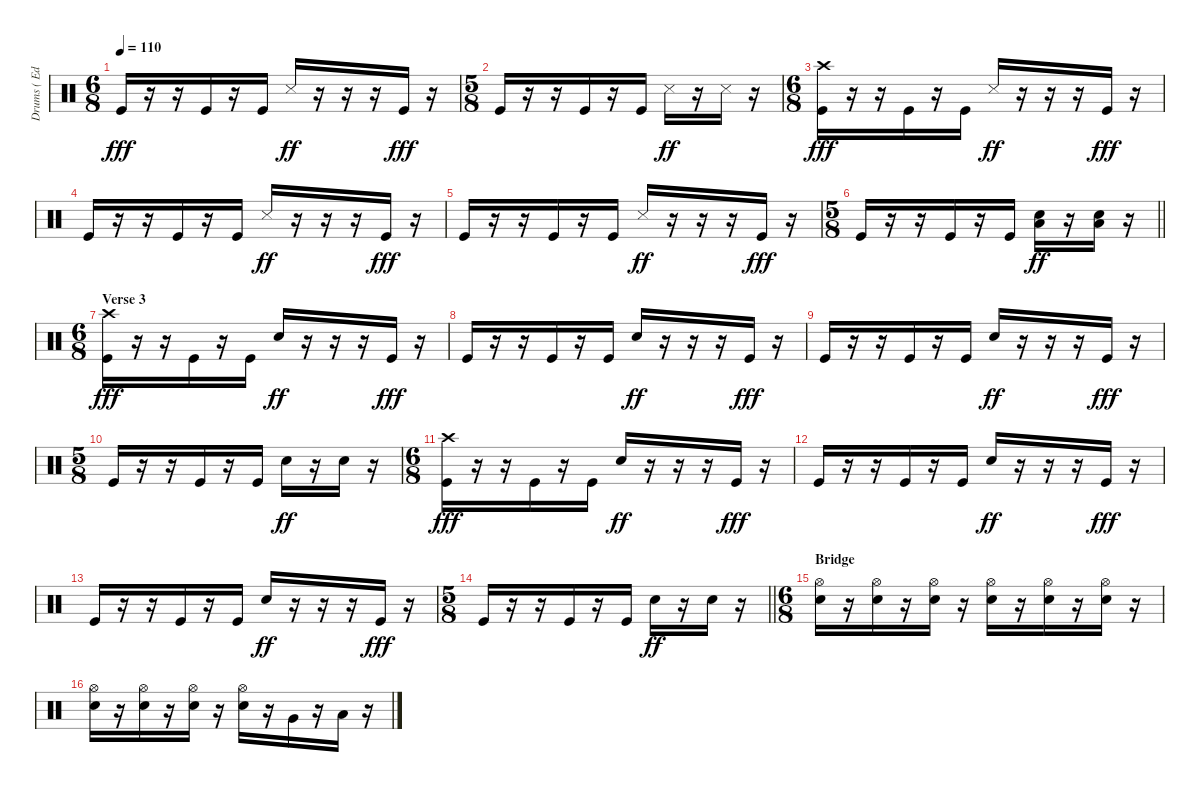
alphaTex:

\track ("Drums ( Edward O'Brien )" "Drums ( Ed") {instrument percussion}
\staff {score}
\articulation defaults
\ts (6 8)
\tempo 110
\clef neutral
\ks c "Kick (hit)".16{dy fff}
r.16 r.16 "Kick (hit)".16 r.16 "Kick (hit)".16 "Snare (side stick) 3".16{dy ff} r.16 r.16 r.16 "Kick (hit)".16{dy fff} r.16 |
\ts (5 8)
"Kick (hit)".16 r.16 r.16 "Kick (hit)".16 r.16 "Kick (hit)".16 "Snare (side stick) 3".16{dy ff} r.16 "Snare (side stick) 3".16 r.16 |
\ts (6 8)
("Crash high (hit)" "Kick (hit)").16{dy fff} r.16 r.16 "Kick (hit)".16 r.16 "Kick (hit)".16 "Snare (side stick) 3".16{dy ff} r.16 r.16 r.16 "Kick (hit)".16{dy fff} r.16 |
"Kick (hit)".16 r.16 r.16 "Kick (hit)".16 r.16 "Kick (hit)".16 "Snare (side stick) 3".16{dy ff} r.16 r.16 r.16 "Kick (hit)".16{dy fff} r.16 |
"Kick (hit)".16 r.16 r.16 "Kick (hit)".16 r.16 "Kick (hit)".16 "Snare (side stick) 3".16{dy ff} r.16 r.16 r.16 "Kick (hit)".16{dy fff} r.16 |
\ts (5 8)
\barLineRight lightlight "Kick (hit)".16
r.16 r.16 "Kick (hit)".16 r.16 "Kick (hit)".16 ("Electric Snare (hit)" "Low Floor Tom (hit)").16{dy ff} r.16 ("Electric Snare (hit)" "Low Floor Tom (hit)").16 r.16 |
\ts (6 8)
\section ("" "Verse 3")
("Crash high (hit)" "Kick (hit)").16{dy fff} r.16 r.16 "Kick (hit)".16 r.16 "Kick (hit)".16 "Electric Snare (hit)".16{dy ff} r.16 r.16 r.16 "Kick (hit)".16{dy fff} r.16 |
"Kick (hit)".16 r.16 r.16 "Kick (hit)".16 r.16 "Kick (hit)".16 "Electric Snare (hit)".16{dy ff} r.16 r.16 r.16 "Kick (hit)".16{dy fff} r.16 |
"Kick (hit)".16 r.16 r.16 "Kick (hit)".16 r.16 "Kick (hit)".16 "Electric Snare (hit)".16{dy ff} r.16 r.16 r.16 "Kick (hit)".16{dy fff} r.16 |
\ts (5 8)
"Kick (hit)".16 r.16 r.16 "Kick (hit)".16 r.16 "Kick (hit)".16 "Electric Snare (hit)".16{dy ff} r.16 "Electric Snare (hit)".16 r.16 |
\ts (6 8)
("Crash high (hit)" "Kick (hit)").16{dy fff} r.16 r.16 "Kick (hit)".16 r.16 "Kick (hit)".16 "Electric Snare (hit)".16{dy ff} r.16 r.16 r.16 "Kick (hit)".16{dy fff} r.16 |
"Kick (hit)".16 r.16 r.16 "Kick (hit)".16 r.16 "Kick (hit)".16 "Electric Snare (hit)".16{dy ff} r.16 r.16 r.16 "Kick (hit)".16{dy fff} r.16 |
"Kick (hit)".16 r.16 r.16 "Kick (hit)".16 r.16 "Kick (hit)".16 "Electric Snare (hit)".16{dy ff} r.16 r.16 r.16 "Kick (hit)".16{dy fff} r.16 |
\ts (5 8)
\barLineRight lightlight "Kick (hit)".16
r.16 r.16 "Kick (hit)".16 r.16 "Kick (hit)".16 "Electric Snare (hit)".16{dy ff} r.16 "Electric Snare (hit)".16 r.16 |
\ts (6 8)
\section ("" "Bridge")
("Hi-Hat (open)" "Electric Snare (hit)").16 r.16 ("Hi-Hat (open)" "Electric Snare (hit)").16 r.16 ("Hi-Hat (open)" "Electric Snare (hit)").16 r.16 ("Hi-Hat (open)" "Electric Snare (hit)").16 r.16 ("Hi-Hat (open)" "Electric Snare (hit)").16 r.16 ("Hi-Hat (open)" "Electric Snare (hit)").16 r.16 |
("Hi-Hat (open)" "Electric Snare (hit)").16 r.16 ("Hi-Hat (open)" "Electric Snare (hit)").16 r.16 ("Hi-Hat (open)" "Electric Snare (hit)").16 r.16 ("Hi-Hat (open)" "Electric Snare (hit)").16 r.16 "Very Low Tom (hit)".16 r.16 "Low Floor Tom (hit)".16 r.16
